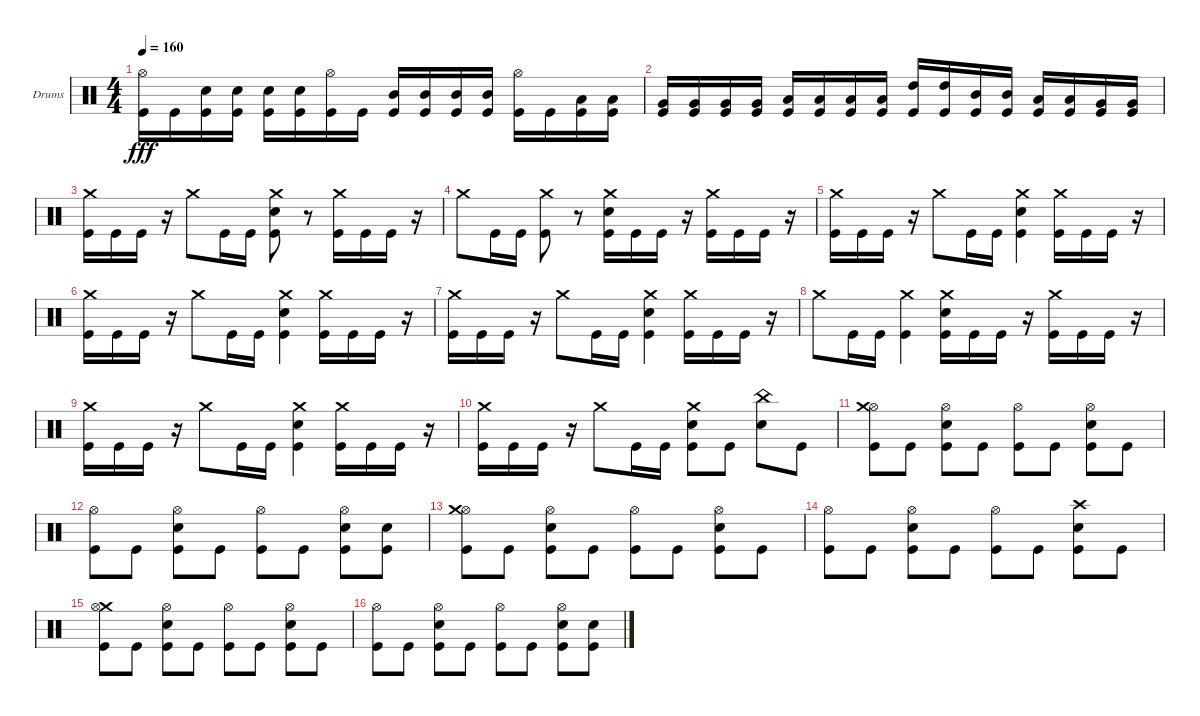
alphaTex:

\bracketExtendMode groupsimilarinstruments
\firstSystemTrackNameOrientation horizontal
\otherSystemsTrackNameOrientation horizontal
\track ("Drums" "Drums") {instrument percussion}
\staff {score}
\articulation defaults
\ts (4 4)
\tempo 160
\clef neutral
\ks c
("Hi-Hat (open)" "Kick (hit)").16{dy fff} "Kick (hit)".16 ("Kick (hit)" "Snare (hit) 2").16 ("Kick (hit)" "Snare (hit) 2").16 ("Kick (hit)" "Snare (hit) 2").16 ("Kick (hit)" "Snare (hit) 2").16 ("Hi-Hat (open)" "Kick (hit)").16 "Kick (hit)".16 ("Mid Tom (hit)" "Kick (hit)").16 ("Mid Tom (hit)" "Kick (hit)").16 ("Mid Tom (hit)" "Kick (hit)").16 ("Mid Tom (hit)" "Kick (hit)").16 ("Hi-Hat (open)" "Kick (hit)").16 "Kick (hit)".16 ("Low Tom (hit)" "Kick (hit)").16 ("Low Tom (hit)" "Kick (hit)").16 |
("Very Low Tom (hit)" "Kick (hit)").16 ("Very Low Tom (hit)" "Kick (hit)").16 ("Very Low Tom (hit)" "Kick (hit)").16 ("Very Low Tom (hit)" "Kick (hit)").16 ("Low Tom (hit)" "Kick (hit)").16 ("Low Tom (hit)" "Kick (hit)").16 ("Low Tom (hit)" "Kick (hit)").16 ("Low Tom (hit)" "Kick (hit)").16 ("High Tom (hit)" "Kick (hit)").16 ("High Tom (hit)" "Kick (hit)").16 ("Mid Tom (hit)" "Kick (hit)").16 ("Mid Tom (hit)" "Kick (hit)").16 ("Low Tom (hit)" "Kick (hit)").16 ("Low Tom (hit)" "Kick (hit)").16 ("Very Low Tom (hit)" "Kick (hit)").16 ("Very Low Tom (hit)" "Kick (hit)").16 |
("Crash medium (hit)" "Kick (hit)").16 "Kick (hit)".16 "Kick (hit)".16 r.16 "Crash medium (hit)".8 "Kick (hit)".16 "Kick (hit)".16 ("Crash medium (hit)" "Kick (hit)" "Snare (hit) 2").8 r.8 ("Crash medium (hit)" "Kick (hit)").16 "Kick (hit)".16 "Kick (hit)".16 r.16 |
"Crash medium (hit)".8 "Kick (hit)".16 "Kick (hit)".16 ("Crash medium (hit)" "Kick (hit)").8 r.8 ("Crash medium (hit)" "Kick (hit)" "Snare (hit) 2").16 "Kick (hit)".16 "Kick (hit)".16 r.16 ("Crash medium (hit)" "Kick (hit)").16 "Kick (hit)".16 "Kick (hit)".16 r.16 |
("Crash medium (hit)" "Kick (hit)").16 "Kick (hit)".16 "Kick (hit)".16 r.16 "Crash medium (hit)".8 "Kick (hit)".16 "Kick (hit)".16 ("Crash medium (hit)" "Kick (hit)" "Snare (hit) 2").4 ("Crash medium (hit)" "Kick (hit)").16 "Kick (hit)".16 "Kick (hit)".16 r.16 |
("Crash medium (hit)" "Kick (hit)").16 "Kick (hit)".16 "Kick (hit)".16 r.16 "Crash medium (hit)".8 "Kick (hit)".16 "Kick (hit)".16 ("Crash medium (hit)" "Kick (hit)" "Snare (hit) 2").4 ("Crash medium (hit)" "Kick (hit)").16 "Kick (hit)".16 "Kick (hit)".16 r.16 |
("Crash medium (hit)" "Kick (hit)").16 "Kick (hit)".16 "Kick (hit)".16 r.16 "Crash medium (hit)".8 "Kick (hit)".16 "Kick (hit)".16 ("Crash medium (hit)" "Kick (hit)" "Snare (hit) 2").4 ("Crash medium (hit)" "Kick (hit)").16 "Kick (hit)".16 "Kick (hit)".16 r.16 |
"Crash medium (hit)".8 "Kick (hit)".16 "Kick (hit)".16 ("Crash medium (hit)" "Kick (hit)").4 ("Crash medium (hit)" "Kick (hit)" "Snare (hit) 2").16 "Kick (hit)".16 "Kick (hit)".16 r.16 ("Crash medium (hit)" "Kick (hit)").16 "Kick (hit)".16 "Kick (hit)".16 r.16 |
("Crash medium (hit)" "Kick (hit)").16 "Kick (hit)".16 "Kick (hit)".16 r.16 "Crash medium (hit)".8 "Kick (hit)".16 "Kick (hit)".16 ("Crash medium (hit)" "Kick (hit)" "Snare (hit) 2").4 ("Crash medium (hit)" "Kick (hit)").16 "Kick (hit)".16 "Kick (hit)".16 r.16 |
("Crash medium (hit)" "Kick (hit)").16 "Kick (hit)".16 "Kick (hit)".16 r.16 "Crash medium (hit)".8 "Kick (hit)".16 "Kick (hit)".16 ("Kick (hit)" "Snare (hit) 2" "Crash medium (hit)").8 "Kick (hit)".8 ("Snare (hit) 2" "China (hit)").8 "Kick (hit)".8 |
("Hi-Hat (open)" "Crash medium (hit)" "Kick (hit)").8 "Kick (hit)".8 ("Hi-Hat (open)" "Snare (hit) 2" "Kick (hit)").8 "Kick (hit)".8 ("Hi-Hat (open)" "Kick (hit)").8 "Kick (hit)".8 ("Hi-Hat (open)" "Snare (hit) 2" "Kick (hit)").8 "Kick (hit)".8 |
("Hi-Hat (open)" "Kick (hit)").8 "Kick (hit)".8 ("Hi-Hat (open)" "Snare (hit) 2" "Kick (hit)").8 "Kick (hit)".8 ("Hi-Hat (open)" "Kick (hit)").8 "Kick (hit)".8 ("Hi-Hat (open)" "Snare (hit) 2" "Kick (hit)").8 ("Snare (hit) 2" "Kick (hit)").8 |
("Hi-Hat (open)" "Crash medium (hit)" "Kick (hit)").8 "Kick (hit)".8 ("Hi-Hat (open)" "Snare (hit) 2" "Kick (hit)").8 "Kick (hit)".8 ("Hi-Hat (open)" "Kick (hit)").8 "Kick (hit)".8 ("Hi-Hat (open)" "Snare (hit) 2" "Kick (hit)").8 "Kick (hit)".8 |
("Hi-Hat (open)" "Kick (hit)").8 "Kick (hit)".8 ("Hi-Hat (open)" "Snare (hit) 2" "Kick (hit)").8 "Kick (hit)".8 ("Hi-Hat (open)" "Kick (hit)").8 "Kick (hit)".8 ("Crash high (hit)" "Snare (hit) 2" "Kick (hit)").8 "Kick (hit)".8 |
("Crash medium (hit)" "Hi-Hat (open)" "Kick (hit)").8 "Kick (hit)".8 ("Hi-Hat (open)" "Snare (hit) 2" "Kick (hit)").8 "Kick (hit)".8 ("Hi-Hat (open)" "Kick (hit)").8 "Kick (hit)".8 ("Hi-Hat (open)" "Snare (hit) 2" "Kick (hit)").8 "Kick (hit)".8 |
("Hi-Hat (open)" "Kick (hit)").8 "Kick (hit)".8 ("Hi-Hat (open)" "Snare (hit) 2" "Kick (hit)").8 "Kick (hit)".8 ("Hi-Hat (open)" "Kick (hit)").8 "Kick (hit)".8 ("Hi-Hat (open)" "Snare (hit) 2" "Kick (hit)").8 ("Snare (hit) 2" "Kick (hit)").8
